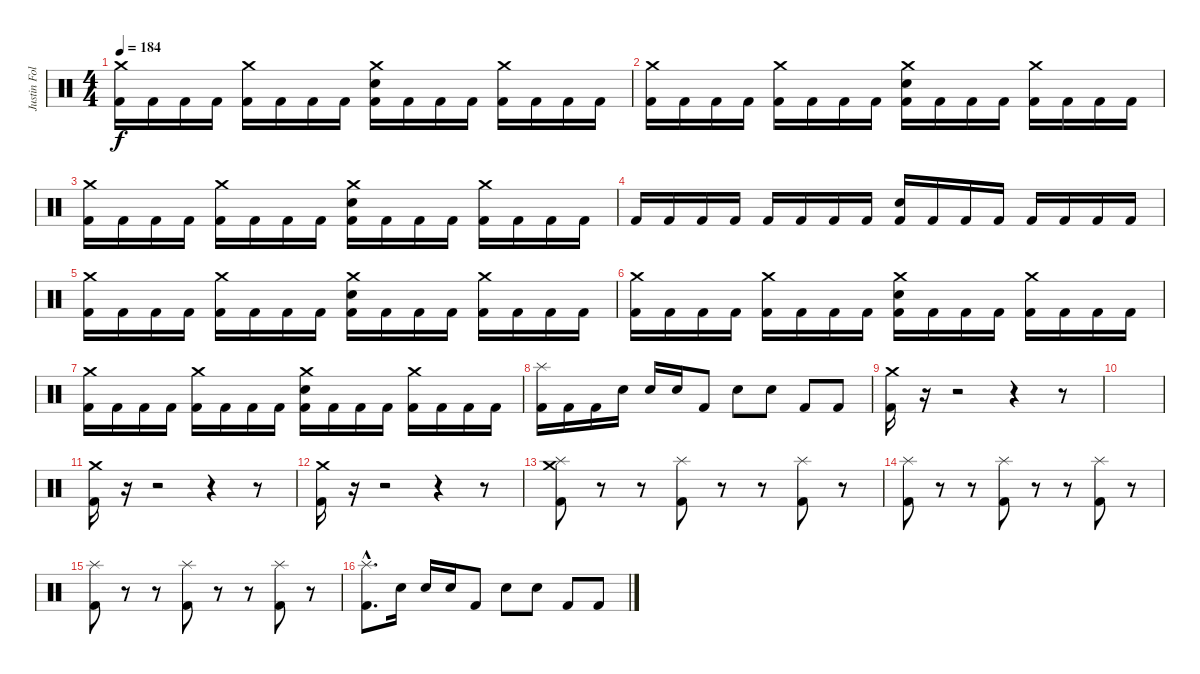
\track ("Justin Foley" "Justin Fol") {instrument percussion}
\staff {score}
\articulation defaults
\ts (4 4)
\tempo 184
\clef neutral
\ks c
("Crash medium (hit)" "Kick (hit) 2").16{dy f} "Kick (hit) 2".16 "Kick (hit) 2".16 "Kick (hit) 2".16 ("Crash medium (hit)" "Kick (hit) 2").16 "Kick (hit) 2".16 "Kick (hit) 2".16 "Kick (hit) 2".16 ("Crash medium (hit)" "Electric Snare (hit)" "Kick (hit) 2").16 "Kick (hit) 2".16 "Kick (hit) 2".16 "Kick (hit) 2".16 ("Crash medium (hit)" "Kick (hit) 2").16 "Kick (hit) 2".16 "Kick (hit) 2".16 "Kick (hit) 2".16 |
("Crash medium (hit)" "Kick (hit) 2").16 "Kick (hit) 2".16 "Kick (hit) 2".16 "Kick (hit) 2".16 ("Crash medium (hit)" "Kick (hit) 2").16 "Kick (hit) 2".16 "Kick (hit) 2".16 "Kick (hit) 2".16 ("Crash medium (hit)" "Electric Snare (hit)" "Kick (hit) 2").16 "Kick (hit) 2".16 "Kick (hit) 2".16 "Kick (hit) 2".16 ("Crash medium (hit)" "Kick (hit) 2").16 "Kick (hit) 2".16 "Kick (hit) 2".16 "Kick (hit) 2".16 |
("Crash medium (hit)" "Kick (hit) 2").16 "Kick (hit) 2".16 "Kick (hit) 2".16 "Kick (hit) 2".16 ("Crash medium (hit)" "Kick (hit) 2").16 "Kick (hit) 2".16 "Kick (hit) 2".16 "Kick (hit) 2".16 ("Crash medium (hit)" "Electric Snare (hit)" "Kick (hit) 2").16 "Kick (hit) 2".16 "Kick (hit) 2".16 "Kick (hit) 2".16 ("Crash medium (hit)" "Kick (hit) 2").16 "Kick (hit) 2".16 "Kick (hit) 2".16 "Kick (hit) 2".16 |
"Kick (hit) 2".16 "Kick (hit) 2".16 "Kick (hit) 2".16 "Kick (hit) 2".16 "Kick (hit) 2".16 "Kick (hit) 2".16 "Kick (hit) 2".16 "Kick (hit) 2".16 ("Electric Snare (hit)" "Kick (hit) 2").16 "Kick (hit) 2".16 "Kick (hit) 2".16 "Kick (hit) 2".16 "Kick (hit) 2".16 "Kick (hit) 2".16 "Kick (hit) 2".16 "Kick (hit) 2".16 |
("Crash medium (hit)" "Kick (hit) 2").16 "Kick (hit) 2".16 "Kick (hit) 2".16 "Kick (hit) 2".16 ("Crash medium (hit)" "Kick (hit) 2").16 "Kick (hit) 2".16 "Kick (hit) 2".16 "Kick (hit) 2".16 ("Crash medium (hit)" "Electric Snare (hit)" "Kick (hit) 2").16 "Kick (hit) 2".16 "Kick (hit) 2".16 "Kick (hit) 2".16 ("Crash medium (hit)" "Kick (hit) 2").16 "Kick (hit) 2".16 "Kick (hit) 2".16 "Kick (hit) 2".16 |
("Crash medium (hit)" "Kick (hit) 2").16 "Kick (hit) 2".16 "Kick (hit) 2".16 "Kick (hit) 2".16 ("Crash medium (hit)" "Kick (hit) 2").16 "Kick (hit) 2".16 "Kick (hit) 2".16 "Kick (hit) 2".16 ("Crash medium (hit)" "Electric Snare (hit)" "Kick (hit) 2").16 "Kick (hit) 2".16 "Kick (hit) 2".16 "Kick (hit) 2".16 ("Crash medium (hit)" "Kick (hit) 2").16 "Kick (hit) 2".16 "Kick (hit) 2".16 "Kick (hit) 2".16 |
("Crash medium (hit)" "Kick (hit) 2").16 "Kick (hit) 2".16 "Kick (hit) 2".16 "Kick (hit) 2".16 ("Crash medium (hit)" "Kick (hit) 2").16 "Kick (hit) 2".16 "Kick (hit) 2".16 "Kick (hit) 2".16 ("Crash medium (hit)" "Electric Snare (hit)" "Kick (hit) 2").16 "Kick (hit) 2".16 "Kick (hit) 2".16 "Kick (hit) 2".16 ("Crash medium (hit)" "Kick (hit) 2").16 "Kick (hit) 2".16 "Kick (hit) 2".16 "Kick (hit) 2".16 |
("Splash (hit)" "Kick (hit) 2").16 "Kick (hit) 2".16 "Kick (hit) 2".16 "Electric Snare (hit)".16 "Electric Snare (hit)".16 "Electric Snare (hit)".16 "Kick (hit) 2".8 "Electric Snare (hit)".8 "Electric Snare (hit)".8 "Kick (hit) 2".8 "Kick (hit) 2".8 |
("Crash medium (hit)" "Kick (hit) 2").16 r.16 r.2 r.4 r.8 |
|
("Crash medium (hit)" "Kick (hit) 2").16 r.16 r.2 r.4 r.8 |
("Crash medium (hit)" "Kick (hit) 2").16 r.16 r.2 r.4 r.8 |
("Crash medium (hit)" "Splash (hit)" "Kick (hit) 2").8 r.8 r.8 ("Splash (hit)" "Kick (hit) 2").8 r.8 r.8 ("Splash (hit)" "Kick (hit) 2").8 r.8 |
("Splash (hit)" "Kick (hit) 2").8 r.8 r.8 ("Splash (hit)" "Kick (hit) 2").8 r.8 r.8 ("Splash (hit)" "Kick (hit) 2").8 r.8 |
("Splash (hit)" "Kick (hit) 2").8 r.8 r.8 ("Splash (hit)" "Kick (hit) 2").8 r.8 r.8 ("Splash (hit)" "Kick (hit) 2").8 r.8 |
("Splash (hit)"{hac} "Kick (hit) 2"{hac}).8{d} "Electric Snare (hit)".16 "Electric Snare (hit)".16 "Electric Snare (hit)".16 "Kick (hit) 2".8 "Electric Snare (hit)".8 "Electric Snare (hit)".8 "Kick (hit) 2".8 "Kick (hit) 2".8
